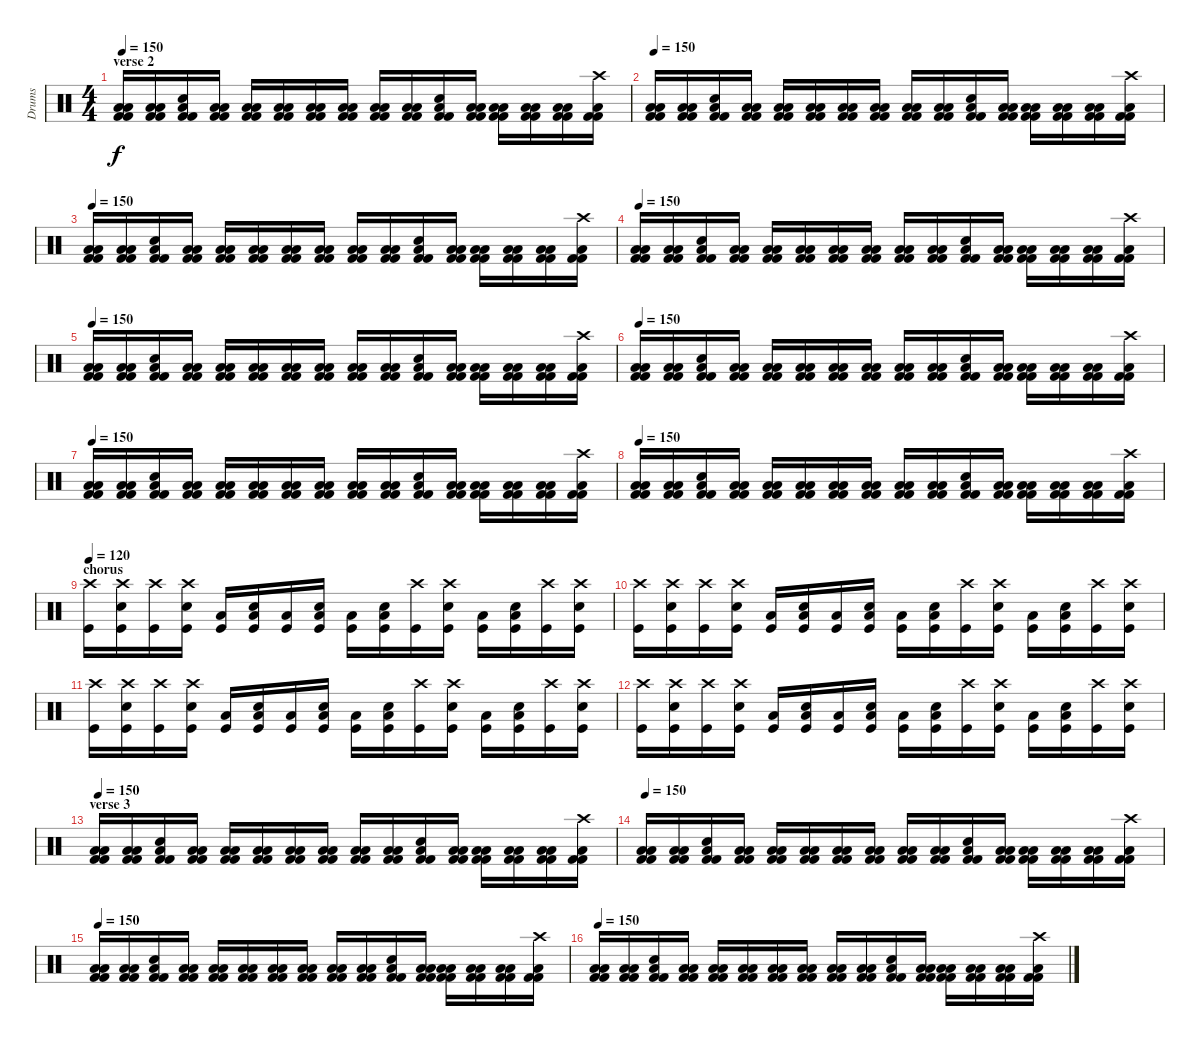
\track ("Drums" "Drums") {instrument percussion}
\staff {score}
\articulation defaults
\ts (4 4)
\section ("" "verse 2")
\tempo 150
\clef neutral
\ks c
("Kick (hit) 2" "Kick (hit) 2" "Low Tom (hit)" "Low Tom (hit)").16{dy f} ("Kick (hit) 2" "Kick (hit) 2" "Low Tom (hit)" "Low Tom (hit)").16 ("Kick (hit) 2" "Kick (hit) 2" "Snare (hit) 2" "Low Tom (hit)").16 ("Kick (hit) 2" "Kick (hit) 2" "Low Tom (hit)" "Low Tom (hit)").16 ("Kick (hit) 2" "Kick (hit) 2" "Low Tom (hit)" "Low Tom (hit)").16 ("Kick (hit) 2" "Kick (hit) 2" "Low Tom (hit)" "Low Tom (hit)").16 ("Kick (hit) 2" "Kick (hit) 2" "Low Tom (hit)" "Low Tom (hit)").16 ("Kick (hit) 2" "Kick (hit) 2" "Low Tom (hit)" "Low Tom (hit)").16 ("Kick (hit) 2" "Kick (hit) 2" "Low Tom (hit)" "Low Tom (hit)").16 ("Kick (hit) 2" "Kick (hit) 2" "Low Tom (hit)" "Low Tom (hit)").16 ("Kick (hit) 2" "Kick (hit) 2" "Snare (hit) 2" "Low Tom (hit)").16 ("Kick (hit) 2" "Kick (hit) 2" "Low Tom (hit)" "Low Tom (hit)").16 ("Kick (hit) 2" "Kick (hit) 2" "Low Tom (hit)" "Low Tom (hit)").16 ("Kick (hit) 2" "Kick (hit) 2" "Low Tom (hit)" "Low Tom (hit)").16 ("Kick (hit) 2" "Kick (hit) 2" "Low Tom (hit)" "Low Tom (hit)").16 ("Kick (hit) 2" "Kick (hit) 2" "Crash high (hit)" "Low Tom (hit)").16 |
\tempo 150
("Kick (hit) 2" "Kick (hit) 2" "Low Tom (hit)" "Low Tom (hit)").16 ("Kick (hit) 2" "Kick (hit) 2" "Low Tom (hit)" "Low Tom (hit)").16 ("Kick (hit) 2" "Kick (hit) 2" "Snare (hit) 2" "Low Tom (hit)").16 ("Kick (hit) 2" "Kick (hit) 2" "Low Tom (hit)" "Low Tom (hit)").16 ("Kick (hit) 2" "Kick (hit) 2" "Low Tom (hit)" "Low Tom (hit)").16 ("Kick (hit) 2" "Kick (hit) 2" "Low Tom (hit)" "Low Tom (hit)").16 ("Kick (hit) 2" "Kick (hit) 2" "Low Tom (hit)" "Low Tom (hit)").16 ("Kick (hit) 2" "Kick (hit) 2" "Low Tom (hit)" "Low Tom (hit)").16 ("Kick (hit) 2" "Kick (hit) 2" "Low Tom (hit)" "Low Tom (hit)").16 ("Kick (hit) 2" "Kick (hit) 2" "Low Tom (hit)" "Low Tom (hit)").16 ("Kick (hit) 2" "Kick (hit) 2" "Snare (hit) 2" "Low Tom (hit)").16 ("Kick (hit) 2" "Kick (hit) 2" "Low Tom (hit)" "Low Tom (hit)").16 ("Kick (hit) 2" "Kick (hit) 2" "Low Tom (hit)" "Low Tom (hit)").16 ("Kick (hit) 2" "Kick (hit) 2" "Low Tom (hit)" "Low Tom (hit)").16 ("Kick (hit) 2" "Kick (hit) 2" "Low Tom (hit)" "Low Tom (hit)").16 ("Kick (hit) 2" "Kick (hit) 2" "Crash high (hit)" "Low Tom (hit)").16 |
\tempo 150
("Kick (hit) 2" "Kick (hit) 2" "Low Tom (hit)" "Low Tom (hit)").16 ("Kick (hit) 2" "Kick (hit) 2" "Low Tom (hit)" "Low Tom (hit)").16 ("Kick (hit) 2" "Kick (hit) 2" "Snare (hit) 2" "Low Tom (hit)").16 ("Kick (hit) 2" "Kick (hit) 2" "Low Tom (hit)" "Low Tom (hit)").16 ("Kick (hit) 2" "Kick (hit) 2" "Low Tom (hit)" "Low Tom (hit)").16 ("Kick (hit) 2" "Kick (hit) 2" "Low Tom (hit)" "Low Tom (hit)").16 ("Kick (hit) 2" "Kick (hit) 2" "Low Tom (hit)" "Low Tom (hit)").16 ("Kick (hit) 2" "Kick (hit) 2" "Low Tom (hit)" "Low Tom (hit)").16 ("Kick (hit) 2" "Kick (hit) 2" "Low Tom (hit)" "Low Tom (hit)").16 ("Kick (hit) 2" "Kick (hit) 2" "Low Tom (hit)" "Low Tom (hit)").16 ("Kick (hit) 2" "Kick (hit) 2" "Snare (hit) 2" "Low Tom (hit)").16 ("Kick (hit) 2" "Kick (hit) 2" "Low Tom (hit)" "Low Tom (hit)").16 ("Kick (hit) 2" "Kick (hit) 2" "Low Tom (hit)" "Low Tom (hit)").16 ("Kick (hit) 2" "Kick (hit) 2" "Low Tom (hit)" "Low Tom (hit)").16 ("Kick (hit) 2" "Kick (hit) 2" "Low Tom (hit)" "Low Tom (hit)").16 ("Kick (hit) 2" "Kick (hit) 2" "Crash high (hit)" "Low Tom (hit)").16 |
\tempo 150
("Kick (hit) 2" "Kick (hit) 2" "Low Tom (hit)" "Low Tom (hit)").16 ("Kick (hit) 2" "Kick (hit) 2" "Low Tom (hit)" "Low Tom (hit)").16 ("Kick (hit) 2" "Kick (hit) 2" "Snare (hit) 2" "Low Tom (hit)").16 ("Kick (hit) 2" "Kick (hit) 2" "Low Tom (hit)" "Low Tom (hit)").16 ("Kick (hit) 2" "Kick (hit) 2" "Low Tom (hit)" "Low Tom (hit)").16 ("Kick (hit) 2" "Kick (hit) 2" "Low Tom (hit)" "Low Tom (hit)").16 ("Kick (hit) 2" "Kick (hit) 2" "Low Tom (hit)" "Low Tom (hit)").16 ("Kick (hit) 2" "Kick (hit) 2" "Low Tom (hit)" "Low Tom (hit)").16 ("Kick (hit) 2" "Kick (hit) 2" "Low Tom (hit)" "Low Tom (hit)").16 ("Kick (hit) 2" "Kick (hit) 2" "Low Tom (hit)" "Low Tom (hit)").16 ("Kick (hit) 2" "Kick (hit) 2" "Snare (hit) 2" "Low Tom (hit)").16 ("Kick (hit) 2" "Kick (hit) 2" "Low Tom (hit)" "Low Tom (hit)").16 ("Kick (hit) 2" "Kick (hit) 2" "Low Tom (hit)" "Low Tom (hit)").16 ("Kick (hit) 2" "Kick (hit) 2" "Low Tom (hit)" "Low Tom (hit)").16 ("Kick (hit) 2" "Kick (hit) 2" "Low Tom (hit)" "Low Tom (hit)").16 ("Kick (hit) 2" "Kick (hit) 2" "Crash high (hit)" "Low Tom (hit)").16 |
\tempo 150
("Kick (hit) 2" "Kick (hit) 2" "Low Tom (hit)" "Low Tom (hit)").16 ("Kick (hit) 2" "Kick (hit) 2" "Low Tom (hit)" "Low Tom (hit)").16 ("Kick (hit) 2" "Kick (hit) 2" "Snare (hit) 2" "Low Tom (hit)").16 ("Kick (hit) 2" "Kick (hit) 2" "Low Tom (hit)" "Low Tom (hit)").16 ("Kick (hit) 2" "Kick (hit) 2" "Low Tom (hit)" "Low Tom (hit)").16 ("Kick (hit) 2" "Kick (hit) 2" "Low Tom (hit)" "Low Tom (hit)").16 ("Kick (hit) 2" "Kick (hit) 2" "Low Tom (hit)" "Low Tom (hit)").16 ("Kick (hit) 2" "Kick (hit) 2" "Low Tom (hit)" "Low Tom (hit)").16 ("Kick (hit) 2" "Kick (hit) 2" "Low Tom (hit)" "Low Tom (hit)").16 ("Kick (hit) 2" "Kick (hit) 2" "Low Tom (hit)" "Low Tom (hit)").16 ("Kick (hit) 2" "Kick (hit) 2" "Snare (hit) 2" "Low Tom (hit)").16 ("Kick (hit) 2" "Kick (hit) 2" "Low Tom (hit)" "Low Tom (hit)").16 ("Kick (hit) 2" "Kick (hit) 2" "Low Tom (hit)" "Low Tom (hit)").16 ("Kick (hit) 2" "Kick (hit) 2" "Low Tom (hit)" "Low Tom (hit)").16 ("Kick (hit) 2" "Kick (hit) 2" "Low Tom (hit)" "Low Tom (hit)").16 ("Kick (hit) 2" "Kick (hit) 2" "Crash high (hit)" "Low Tom (hit)").16 |
\tempo 150
("Kick (hit) 2" "Kick (hit) 2" "Low Tom (hit)" "Low Tom (hit)").16 ("Kick (hit) 2" "Kick (hit) 2" "Low Tom (hit)" "Low Tom (hit)").16 ("Kick (hit) 2" "Kick (hit) 2" "Snare (hit) 2" "Low Tom (hit)").16 ("Kick (hit) 2" "Kick (hit) 2" "Low Tom (hit)" "Low Tom (hit)").16 ("Kick (hit) 2" "Kick (hit) 2" "Low Tom (hit)" "Low Tom (hit)").16 ("Kick (hit) 2" "Kick (hit) 2" "Low Tom (hit)" "Low Tom (hit)").16 ("Kick (hit) 2" "Kick (hit) 2" "Low Tom (hit)" "Low Tom (hit)").16 ("Kick (hit) 2" "Kick (hit) 2" "Low Tom (hit)" "Low Tom (hit)").16 ("Kick (hit) 2" "Kick (hit) 2" "Low Tom (hit)" "Low Tom (hit)").16 ("Kick (hit) 2" "Kick (hit) 2" "Low Tom (hit)" "Low Tom (hit)").16 ("Kick (hit) 2" "Kick (hit) 2" "Snare (hit) 2" "Low Tom (hit)").16 ("Kick (hit) 2" "Kick (hit) 2" "Low Tom (hit)" "Low Tom (hit)").16 ("Kick (hit) 2" "Kick (hit) 2" "Low Tom (hit)" "Low Tom (hit)").16 ("Kick (hit) 2" "Kick (hit) 2" "Low Tom (hit)" "Low Tom (hit)").16 ("Kick (hit) 2" "Kick (hit) 2" "Low Tom (hit)" "Low Tom (hit)").16 ("Kick (hit) 2" "Kick (hit) 2" "Crash high (hit)" "Low Tom (hit)").16 |
\tempo 150
("Kick (hit) 2" "Kick (hit) 2" "Low Tom (hit)" "Low Tom (hit)").16 ("Kick (hit) 2" "Kick (hit) 2" "Low Tom (hit)" "Low Tom (hit)").16 ("Kick (hit) 2" "Kick (hit) 2" "Snare (hit) 2" "Low Tom (hit)").16 ("Kick (hit) 2" "Kick (hit) 2" "Low Tom (hit)" "Low Tom (hit)").16 ("Kick (hit) 2" "Kick (hit) 2" "Low Tom (hit)" "Low Tom (hit)").16 ("Kick (hit) 2" "Kick (hit) 2" "Low Tom (hit)" "Low Tom (hit)").16 ("Kick (hit) 2" "Kick (hit) 2" "Low Tom (hit)" "Low Tom (hit)").16 ("Kick (hit) 2" "Kick (hit) 2" "Low Tom (hit)" "Low Tom (hit)").16 ("Kick (hit) 2" "Kick (hit) 2" "Low Tom (hit)" "Low Tom (hit)").16 ("Kick (hit) 2" "Kick (hit) 2" "Low Tom (hit)" "Low Tom (hit)").16 ("Kick (hit) 2" "Kick (hit) 2" "Snare (hit) 2" "Low Tom (hit)").16 ("Kick (hit) 2" "Kick (hit) 2" "Low Tom (hit)" "Low Tom (hit)").16 ("Kick (hit) 2" "Kick (hit) 2" "Low Tom (hit)" "Low Tom (hit)").16 ("Kick (hit) 2" "Kick (hit) 2" "Low Tom (hit)" "Low Tom (hit)").16 ("Kick (hit) 2" "Kick (hit) 2" "Low Tom (hit)" "Low Tom (hit)").16 ("Kick (hit) 2" "Kick (hit) 2" "Crash high (hit)" "Low Tom (hit)").16 |
\tempo 150
("Kick (hit) 2" "Kick (hit) 2" "Low Tom (hit)" "Low Tom (hit)").16 ("Kick (hit) 2" "Kick (hit) 2" "Low Tom (hit)" "Low Tom (hit)").16 ("Kick (hit) 2" "Kick (hit) 2" "Snare (hit) 2" "Low Tom (hit)").16 ("Kick (hit) 2" "Kick (hit) 2" "Low Tom (hit)" "Low Tom (hit)").16 ("Kick (hit) 2" "Kick (hit) 2" "Low Tom (hit)" "Low Tom (hit)").16 ("Kick (hit) 2" "Kick (hit) 2" "Low Tom (hit)" "Low Tom (hit)").16 ("Kick (hit) 2" "Kick (hit) 2" "Low Tom (hit)" "Low Tom (hit)").16 ("Kick (hit) 2" "Kick (hit) 2" "Low Tom (hit)" "Low Tom (hit)").16 ("Kick (hit) 2" "Kick (hit) 2" "Low Tom (hit)" "Low Tom (hit)").16 ("Kick (hit) 2" "Kick (hit) 2" "Low Tom (hit)" "Low Tom (hit)").16 ("Kick (hit) 2" "Kick (hit) 2" "Snare (hit) 2" "Low Tom (hit)").16 ("Kick (hit) 2" "Kick (hit) 2" "Low Tom (hit)" "Low Tom (hit)").16 ("Kick (hit) 2" "Kick (hit) 2" "Low Tom (hit)" "Low Tom (hit)").16 ("Kick (hit) 2" "Kick (hit) 2" "Low Tom (hit)" "Low Tom (hit)").16 ("Kick (hit) 2" "Kick (hit) 2" "Low Tom (hit)" "Low Tom (hit)").16 ("Kick (hit) 2" "Kick (hit) 2" "Crash high (hit)" "Low Tom (hit)").16 |
\section ("" "chorus")
\tempo 120
("Kick (hit)" "Crash high (hit)").16 ("Kick (hit)" "Snare (hit) 2" "Crash high (hit)").16 ("Kick (hit)" "Crash high (hit)").16 ("Kick (hit)" "Snare (hit) 2" "Crash high (hit)").16 ("Kick (hit)" "Low Tom (hit)").16 ("Kick (hit)" "Snare (hit) 2" "Low Tom (hit)").16 ("Kick (hit)" "Low Tom (hit)").16 ("Kick (hit)" "Snare (hit) 2" "Low Tom (hit)").16 ("Kick (hit)" "Low Tom (hit)").16 ("Kick (hit)" "Snare (hit) 2" "Low Tom (hit)").16 ("Kick (hit)" "Crash high (hit)").16 ("Kick (hit)" "Snare (hit) 2" "Crash high (hit)").16 ("Kick (hit)" "Low Tom (hit)").16 ("Kick (hit)" "Snare (hit) 2" "Low Tom (hit)").16 ("Kick (hit)" "Crash high (hit)").16 ("Kick (hit)" "Snare (hit) 2" "Crash high (hit)").16 |
("Kick (hit)" "Crash high (hit)").16 ("Kick (hit)" "Snare (hit) 2" "Crash high (hit)").16 ("Kick (hit)" "Crash high (hit)").16 ("Kick (hit)" "Snare (hit) 2" "Crash high (hit)").16 ("Kick (hit)" "Low Tom (hit)").16 ("Kick (hit)" "Snare (hit) 2" "Low Tom (hit)").16 ("Kick (hit)" "Low Tom (hit)").16 ("Kick (hit)" "Snare (hit) 2" "Low Tom (hit)").16 ("Kick (hit)" "Low Tom (hit)").16 ("Kick (hit)" "Snare (hit) 2" "Low Tom (hit)").16 ("Kick (hit)" "Crash high (hit)").16 ("Kick (hit)" "Snare (hit) 2" "Crash high (hit)").16 ("Kick (hit)" "Low Tom (hit)").16 ("Kick (hit)" "Snare (hit) 2" "Low Tom (hit)").16 ("Kick (hit)" "Crash high (hit)").16 ("Kick (hit)" "Snare (hit) 2" "Crash high (hit)").16 |
("Kick (hit)" "Crash high (hit)").16 ("Kick (hit)" "Snare (hit) 2" "Crash high (hit)").16 ("Kick (hit)" "Crash high (hit)").16 ("Kick (hit)" "Snare (hit) 2" "Crash high (hit)").16 ("Kick (hit)" "Low Tom (hit)").16 ("Kick (hit)" "Snare (hit) 2" "Low Tom (hit)").16 ("Kick (hit)" "Low Tom (hit)").16 ("Kick (hit)" "Snare (hit) 2" "Low Tom (hit)").16 ("Kick (hit)" "Low Tom (hit)").16 ("Kick (hit)" "Snare (hit) 2" "Low Tom (hit)").16 ("Kick (hit)" "Crash high (hit)").16 ("Kick (hit)" "Snare (hit) 2" "Crash high (hit)").16 ("Kick (hit)" "Low Tom (hit)").16 ("Kick (hit)" "Snare (hit) 2" "Low Tom (hit)").16 ("Kick (hit)" "Crash high (hit)").16 ("Kick (hit)" "Snare (hit) 2" "Crash high (hit)").16 |
("Kick (hit)" "Crash high (hit)").16 ("Kick (hit)" "Snare (hit) 2" "Crash high (hit)").16 ("Kick (hit)" "Crash high (hit)").16 ("Kick (hit)" "Snare (hit) 2" "Crash high (hit)").16 ("Kick (hit)" "Low Tom (hit)").16 ("Kick (hit)" "Snare (hit) 2" "Low Tom (hit)").16 ("Kick (hit)" "Low Tom (hit)").16 ("Kick (hit)" "Snare (hit) 2" "Low Tom (hit)").16 ("Kick (hit)" "Low Tom (hit)").16 ("Kick (hit)" "Snare (hit) 2" "Low Tom (hit)").16 ("Kick (hit)" "Crash high (hit)").16 ("Kick (hit)" "Snare (hit) 2" "Crash high (hit)").16 ("Kick (hit)" "Low Tom (hit)").16 ("Kick (hit)" "Snare (hit) 2" "Low Tom (hit)").16 ("Kick (hit)" "Crash high (hit)").16 ("Kick (hit)" "Snare (hit) 2" "Crash high (hit)").16 |
\section ("" "verse 3")
\tempo 150
("Kick (hit) 2" "Kick (hit) 2" "Low Tom (hit)" "Low Tom (hit)").16 ("Kick (hit) 2" "Kick (hit) 2" "Low Tom (hit)" "Low Tom (hit)").16 ("Kick (hit) 2" "Kick (hit) 2" "Snare (hit) 2" "Low Tom (hit)").16 ("Kick (hit) 2" "Kick (hit) 2" "Low Tom (hit)" "Low Tom (hit)").16 ("Kick (hit) 2" "Kick (hit) 2" "Low Tom (hit)" "Low Tom (hit)").16 ("Kick (hit) 2" "Kick (hit) 2" "Low Tom (hit)" "Low Tom (hit)").16 ("Kick (hit) 2" "Kick (hit) 2" "Low Tom (hit)" "Low Tom (hit)").16 ("Kick (hit) 2" "Kick (hit) 2" "Low Tom (hit)" "Low Tom (hit)").16 ("Kick (hit) 2" "Kick (hit) 2" "Low Tom (hit)" "Low Tom (hit)").16 ("Kick (hit) 2" "Kick (hit) 2" "Low Tom (hit)" "Low Tom (hit)").16 ("Kick (hit) 2" "Kick (hit) 2" "Snare (hit) 2" "Low Tom (hit)").16 ("Kick (hit) 2" "Kick (hit) 2" "Low Tom (hit)" "Low Tom (hit)").16 ("Kick (hit) 2" "Kick (hit) 2" "Low Tom (hit)" "Low Tom (hit)").16 ("Kick (hit) 2" "Kick (hit) 2" "Low Tom (hit)" "Low Tom (hit)").16 ("Kick (hit) 2" "Kick (hit) 2" "Low Tom (hit)" "Low Tom (hit)").16 ("Kick (hit) 2" "Kick (hit) 2" "Crash high (hit)" "Low Tom (hit)").16 |
\tempo 150
("Kick (hit) 2" "Kick (hit) 2" "Low Tom (hit)" "Low Tom (hit)").16 ("Kick (hit) 2" "Kick (hit) 2" "Low Tom (hit)" "Low Tom (hit)").16 ("Kick (hit) 2" "Kick (hit) 2" "Snare (hit) 2" "Low Tom (hit)").16 ("Kick (hit) 2" "Kick (hit) 2" "Low Tom (hit)" "Low Tom (hit)").16 ("Kick (hit) 2" "Kick (hit) 2" "Low Tom (hit)" "Low Tom (hit)").16 ("Kick (hit) 2" "Kick (hit) 2" "Low Tom (hit)" "Low Tom (hit)").16 ("Kick (hit) 2" "Kick (hit) 2" "Low Tom (hit)" "Low Tom (hit)").16 ("Kick (hit) 2" "Kick (hit) 2" "Low Tom (hit)" "Low Tom (hit)").16 ("Kick (hit) 2" "Kick (hit) 2" "Low Tom (hit)" "Low Tom (hit)").16 ("Kick (hit) 2" "Kick (hit) 2" "Low Tom (hit)" "Low Tom (hit)").16 ("Kick (hit) 2" "Kick (hit) 2" "Snare (hit) 2" "Low Tom (hit)").16 ("Kick (hit) 2" "Kick (hit) 2" "Low Tom (hit)" "Low Tom (hit)").16 ("Kick (hit) 2" "Kick (hit) 2" "Low Tom (hit)" "Low Tom (hit)").16 ("Kick (hit) 2" "Kick (hit) 2" "Low Tom (hit)" "Low Tom (hit)").16 ("Kick (hit) 2" "Kick (hit) 2" "Low Tom (hit)" "Low Tom (hit)").16 ("Kick (hit) 2" "Kick (hit) 2" "Crash high (hit)" "Low Tom (hit)").16 |
\tempo 150
("Kick (hit) 2" "Kick (hit) 2" "Low Tom (hit)" "Low Tom (hit)").16 ("Kick (hit) 2" "Kick (hit) 2" "Low Tom (hit)" "Low Tom (hit)").16 ("Kick (hit) 2" "Kick (hit) 2" "Snare (hit) 2" "Low Tom (hit)").16 ("Kick (hit) 2" "Kick (hit) 2" "Low Tom (hit)" "Low Tom (hit)").16 ("Kick (hit) 2" "Kick (hit) 2" "Low Tom (hit)" "Low Tom (hit)").16 ("Kick (hit) 2" "Kick (hit) 2" "Low Tom (hit)" "Low Tom (hit)").16 ("Kick (hit) 2" "Kick (hit) 2" "Low Tom (hit)" "Low Tom (hit)").16 ("Kick (hit) 2" "Kick (hit) 2" "Low Tom (hit)" "Low Tom (hit)").16 ("Kick (hit) 2" "Kick (hit) 2" "Low Tom (hit)" "Low Tom (hit)").16 ("Kick (hit) 2" "Kick (hit) 2" "Low Tom (hit)" "Low Tom (hit)").16 ("Kick (hit) 2" "Kick (hit) 2" "Snare (hit) 2" "Low Tom (hit)").16 ("Kick (hit) 2" "Kick (hit) 2" "Low Tom (hit)" "Low Tom (hit)").16 ("Kick (hit) 2" "Kick (hit) 2" "Low Tom (hit)" "Low Tom (hit)").16 ("Kick (hit) 2" "Kick (hit) 2" "Low Tom (hit)" "Low Tom (hit)").16 ("Kick (hit) 2" "Kick (hit) 2" "Low Tom (hit)" "Low Tom (hit)").16 ("Kick (hit) 2" "Kick (hit) 2" "Crash high (hit)" "Low Tom (hit)").16 |
\tempo 150
("Kick (hit) 2" "Kick (hit) 2" "Low Tom (hit)" "Low Tom (hit)").16 ("Kick (hit) 2" "Kick (hit) 2" "Low Tom (hit)" "Low Tom (hit)").16 ("Kick (hit) 2" "Kick (hit) 2" "Snare (hit) 2" "Low Tom (hit)").16 ("Kick (hit) 2" "Kick (hit) 2" "Low Tom (hit)" "Low Tom (hit)").16 ("Kick (hit) 2" "Kick (hit) 2" "Low Tom (hit)" "Low Tom (hit)").16 ("Kick (hit) 2" "Kick (hit) 2" "Low Tom (hit)" "Low Tom (hit)").16 ("Kick (hit) 2" "Kick (hit) 2" "Low Tom (hit)" "Low Tom (hit)").16 ("Kick (hit) 2" "Kick (hit) 2" "Low Tom (hit)" "Low Tom (hit)").16 ("Kick (hit) 2" "Kick (hit) 2" "Low Tom (hit)" "Low Tom (hit)").16 ("Kick (hit) 2" "Kick (hit) 2" "Low Tom (hit)" "Low Tom (hit)").16 ("Kick (hit) 2" "Kick (hit) 2" "Snare (hit) 2" "Low Tom (hit)").16 ("Kick (hit) 2" "Kick (hit) 2" "Low Tom (hit)" "Low Tom (hit)").16 ("Kick (hit) 2" "Kick (hit) 2" "Low Tom (hit)" "Low Tom (hit)").16 ("Kick (hit) 2" "Kick (hit) 2" "Low Tom (hit)" "Low Tom (hit)").16 ("Kick (hit) 2" "Kick (hit) 2" "Low Tom (hit)" "Low Tom (hit)").16 ("Kick (hit) 2" "Kick (hit) 2" "Crash high (hit)" "Low Tom (hit)").16
